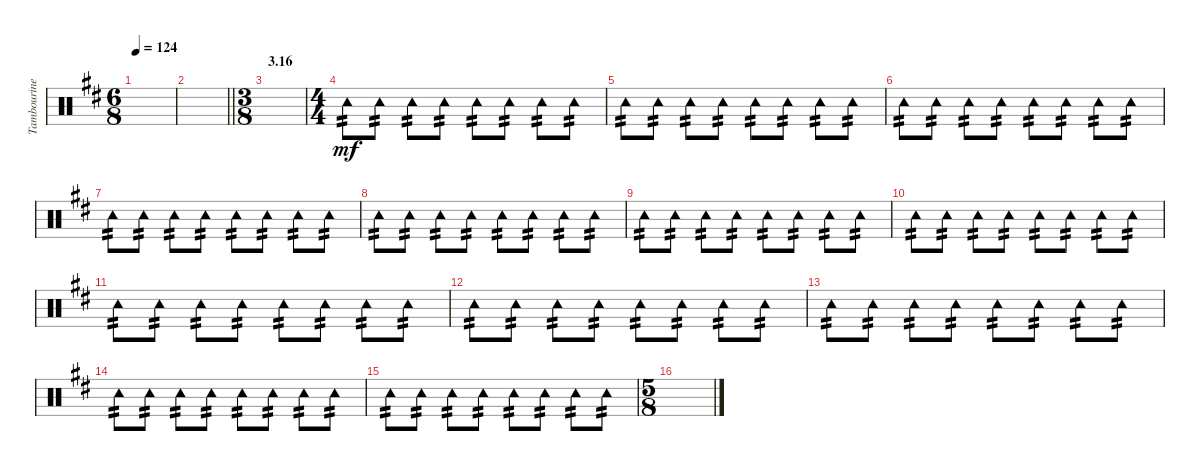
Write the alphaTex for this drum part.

\track ("Tambourine" "Tambourine") {instrument percussion}
\staff {score}
\articulation defaults
\ts (6 8)
\tempo 124
\clef neutral
\ks d
|
\barLineRight lightlight
|
\ts (3 8)
\section ("" "3.16")
|
\ts (4 4)
"Tambourine (hit)".8{tp 2 dy mf} "Tambourine (hit)".8{tp 2} "Tambourine (hit)".8{tp 2} "Tambourine (hit)".8{tp 2} "Tambourine (hit)".8{tp 2} "Tambourine (hit)".8{tp 2} "Tambourine (hit)".8{tp 2} "Tambourine (hit)".8{tp 2} |
"Tambourine (hit)".8{tp 2} "Tambourine (hit)".8{tp 2} "Tambourine (hit)".8{tp 2} "Tambourine (hit)".8{tp 2} "Tambourine (hit)".8{tp 2} "Tambourine (hit)".8{tp 2} "Tambourine (hit)".8{tp 2} "Tambourine (hit)".8{tp 2} |
"Tambourine (hit)".8{tp 2} "Tambourine (hit)".8{tp 2} "Tambourine (hit)".8{tp 2} "Tambourine (hit)".8{tp 2} "Tambourine (hit)".8{tp 2} "Tambourine (hit)".8{tp 2} "Tambourine (hit)".8{tp 2} "Tambourine (hit)".8{tp 2} |
"Tambourine (hit)".8{tp 2} "Tambourine (hit)".8{tp 2} "Tambourine (hit)".8{tp 2} "Tambourine (hit)".8{tp 2} "Tambourine (hit)".8{tp 2} "Tambourine (hit)".8{tp 2} "Tambourine (hit)".8{tp 2} "Tambourine (hit)".8{tp 2} |
"Tambourine (hit)".8{tp 2} "Tambourine (hit)".8{tp 2} "Tambourine (hit)".8{tp 2} "Tambourine (hit)".8{tp 2} "Tambourine (hit)".8{tp 2} "Tambourine (hit)".8{tp 2} "Tambourine (hit)".8{tp 2} "Tambourine (hit)".8{tp 2} |
"Tambourine (hit)".8{tp 2} "Tambourine (hit)".8{tp 2} "Tambourine (hit)".8{tp 2} "Tambourine (hit)".8{tp 2} "Tambourine (hit)".8{tp 2} "Tambourine (hit)".8{tp 2} "Tambourine (hit)".8{tp 2} "Tambourine (hit)".8{tp 2} |
"Tambourine (hit)".8{tp 2} "Tambourine (hit)".8{tp 2} "Tambourine (hit)".8{tp 2} "Tambourine (hit)".8{tp 2} "Tambourine (hit)".8{tp 2} "Tambourine (hit)".8{tp 2} "Tambourine (hit)".8{tp 2} "Tambourine (hit)".8{tp 2} |
"Tambourine (hit)".8{tp 2} "Tambourine (hit)".8{tp 2} "Tambourine (hit)".8{tp 2} "Tambourine (hit)".8{tp 2} "Tambourine (hit)".8{tp 2} "Tambourine (hit)".8{tp 2} "Tambourine (hit)".8{tp 2} "Tambourine (hit)".8{tp 2} |
"Tambourine (hit)".8{tp 2} "Tambourine (hit)".8{tp 2} "Tambourine (hit)".8{tp 2} "Tambourine (hit)".8{tp 2} "Tambourine (hit)".8{tp 2} "Tambourine (hit)".8{tp 2} "Tambourine (hit)".8{tp 2} "Tambourine (hit)".8{tp 2} |
"Tambourine (hit)".8{tp 2} "Tambourine (hit)".8{tp 2} "Tambourine (hit)".8{tp 2} "Tambourine (hit)".8{tp 2} "Tambourine (hit)".8{tp 2} "Tambourine (hit)".8{tp 2} "Tambourine (hit)".8{tp 2} "Tambourine (hit)".8{tp 2} |
"Tambourine (hit)".8{tp 2} "Tambourine (hit)".8{tp 2} "Tambourine (hit)".8{tp 2} "Tambourine (hit)".8{tp 2} "Tambourine (hit)".8{tp 2} "Tambourine (hit)".8{tp 2} "Tambourine (hit)".8{tp 2} "Tambourine (hit)".8{tp 2} |
"Tambourine (hit)".8{tp 2} "Tambourine (hit)".8{tp 2} "Tambourine (hit)".8{tp 2} "Tambourine (hit)".8{tp 2} "Tambourine (hit)".8{tp 2} "Tambourine (hit)".8{tp 2} "Tambourine (hit)".8{tp 2} "Tambourine (hit)".8{tp 2} |
\ts (5 8)
